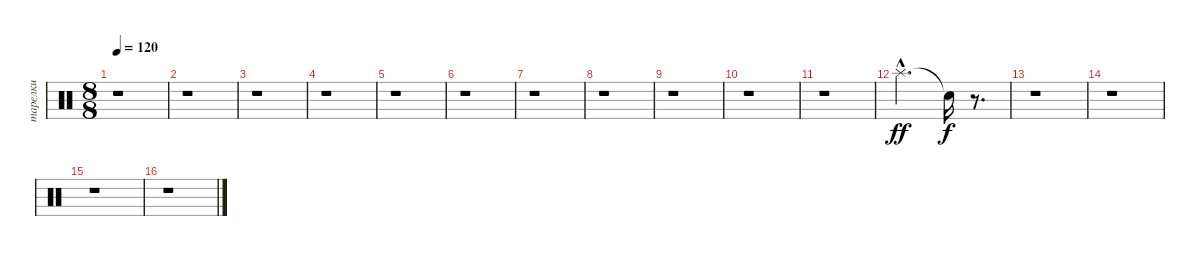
\track ("тарелки" "тарелки") {instrument percussion}
\staff {score}
\articulation defaults
\ts (8 8)
\tempo 120
\clef neutral
\ks c
r.1{dy ff} |
r.1 |
r.1 |
r.1 |
r.1 |
r.1 |
r.1 |
r.1 |
r.1 |
r.1 |
r.1 |
"Splash (hit)"{hac}.2{d} "Snare (hit)"{t}.16{dy f} r.8{d} |
r.1 |
r.1 |
r.1 |
r.1
